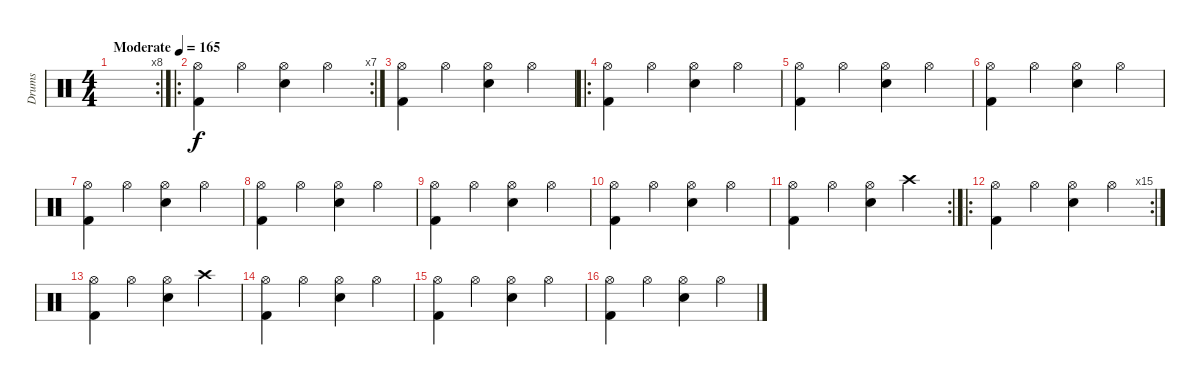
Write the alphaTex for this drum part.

\track ("Drums" "Drums") {instrument percussion}
\staff {score}
\articulation defaults
\rc 8
\ts (4 4)
\tempo (165 "Moderate")
\clef neutral
\ks c
|
\ro
\rc 7
("Hi-Hat (open)" "Kick (hit) 2").4 "Hi-Hat (open)".4 ("Hi-Hat (open)" "Electric Snare (hit)").4 "Hi-Hat (open)".4 |
("Hi-Hat (open)" "Kick (hit) 2").4 "Hi-Hat (open)".4 ("Hi-Hat (open)" "Electric Snare (hit)").4 "Hi-Hat (open)".4 |
\ro
("Hi-Hat (open)" "Kick (hit) 2").4 "Hi-Hat (open)".4 ("Hi-Hat (open)" "Electric Snare (hit)").4 "Hi-Hat (open)".4 |
("Hi-Hat (open)" "Kick (hit) 2").4 "Hi-Hat (open)".4 ("Hi-Hat (open)" "Electric Snare (hit)").4 "Hi-Hat (open)".4 |
("Hi-Hat (open)" "Kick (hit) 2").4 "Hi-Hat (open)".4 ("Hi-Hat (open)" "Electric Snare (hit)").4 "Hi-Hat (open)".4 |
("Hi-Hat (open)" "Kick (hit) 2").4 "Hi-Hat (open)".4 ("Hi-Hat (open)" "Electric Snare (hit)").4 "Hi-Hat (open)".4 |
("Hi-Hat (open)" "Kick (hit) 2").4 "Hi-Hat (open)".4 ("Hi-Hat (open)" "Electric Snare (hit)").4 "Hi-Hat (open)".4 |
("Hi-Hat (open)" "Kick (hit) 2").4 "Hi-Hat (open)".4 ("Hi-Hat (open)" "Electric Snare (hit)").4 "Hi-Hat (open)".4 |
("Hi-Hat (open)" "Kick (hit) 2").4 "Hi-Hat (open)".4 ("Hi-Hat (open)" "Electric Snare (hit)").4 "Hi-Hat (open)".4 |
\rc 2
("Hi-Hat (open)" "Kick (hit) 2").4 "Hi-Hat (open)".4 ("Hi-Hat (open)" "Electric Snare (hit)").4 "Crash high (hit)".4 |
\ro
\rc 15
("Hi-Hat (open)" "Kick (hit) 2").4 "Hi-Hat (open)".4 ("Hi-Hat (open)" "Electric Snare (hit)").4 "Hi-Hat (open)".4 |
("Hi-Hat (open)" "Kick (hit) 2").4 "Hi-Hat (open)".4 ("Hi-Hat (open)" "Electric Snare (hit)").4 "Crash high (hit)".4 |
("Hi-Hat (open)" "Kick (hit) 2").4 "Hi-Hat (open)".4 ("Hi-Hat (open)" "Electric Snare (hit)").4 "Hi-Hat (open)".4 |
("Hi-Hat (open)" "Kick (hit) 2").4 "Hi-Hat (open)".4 ("Hi-Hat (open)" "Electric Snare (hit)").4 "Hi-Hat (open)".4 |
("Hi-Hat (open)" "Kick (hit) 2").4 "Hi-Hat (open)".4 ("Hi-Hat (open)" "Electric Snare (hit)").4 "Hi-Hat (open)".4
